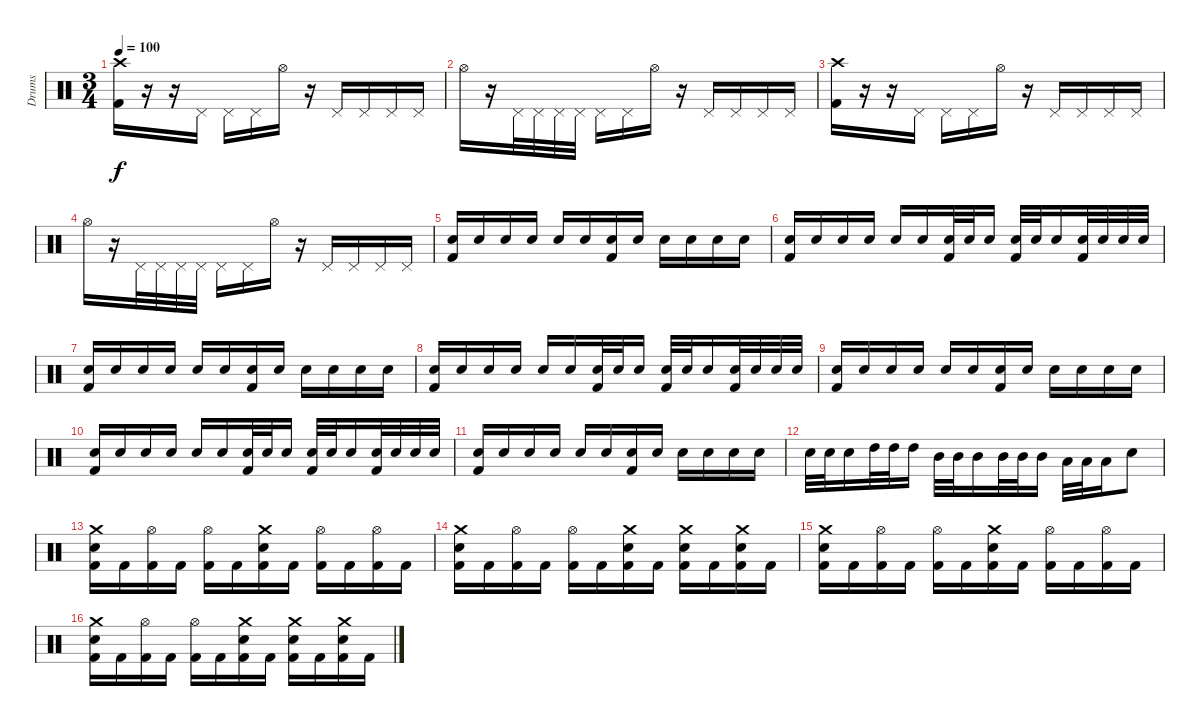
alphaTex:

\track ("Drums" "Drums") {instrument percussion}
\staff {score}
\articulation defaults
\ts (3 4)
\tempo 100
\clef neutral
\ks c
("Crash high (hit)" "Kick (hit) 2").16{dy f} r.16 r.16 "Pedal Hi-Hat (hit)".16 "Pedal Hi-Hat (hit)".16 "Pedal Hi-Hat (hit)".16 "Hi-Hat (open)".16 r.16 "Pedal Hi-Hat (hit)".16 "Pedal Hi-Hat (hit)".16 "Pedal Hi-Hat (hit)".16 "Pedal Hi-Hat (hit)".16 |
"Hi-Hat (open)".16 r.16 "Pedal Hi-Hat (hit)".32 "Pedal Hi-Hat (hit)".32 "Pedal Hi-Hat (hit)".32 "Pedal Hi-Hat (hit)".32 "Pedal Hi-Hat (hit)".16 "Pedal Hi-Hat (hit)".16 "Hi-Hat (open)".16 r.16 "Pedal Hi-Hat (hit)".16 "Pedal Hi-Hat (hit)".16 "Pedal Hi-Hat (hit)".16 "Pedal Hi-Hat (hit)".16 |
("Crash high (hit)" "Kick (hit) 2").16 r.16 r.16 "Pedal Hi-Hat (hit)".16 "Pedal Hi-Hat (hit)".16 "Pedal Hi-Hat (hit)".16 "Hi-Hat (open)".16 r.16 "Pedal Hi-Hat (hit)".16 "Pedal Hi-Hat (hit)".16 "Pedal Hi-Hat (hit)".16 "Pedal Hi-Hat (hit)".16 |
"Hi-Hat (open)".16 r.16 "Pedal Hi-Hat (hit)".32 "Pedal Hi-Hat (hit)".32 "Pedal Hi-Hat (hit)".32 "Pedal Hi-Hat (hit)".32 "Pedal Hi-Hat (hit)".16 "Pedal Hi-Hat (hit)".16 "Hi-Hat (open)".16 r.16 "Pedal Hi-Hat (hit)".16 "Pedal Hi-Hat (hit)".16 "Pedal Hi-Hat (hit)".16 "Pedal Hi-Hat (hit)".16 |
("Electric Snare (hit)" "Kick (hit) 2").16{volume 9} "Electric Snare (hit)".16 "Electric Snare (hit)".16 "Electric Snare (hit)".16 "Electric Snare (hit)".16 "Electric Snare (hit)".16 ("Electric Snare (hit)" "Kick (hit) 2").16 "Electric Snare (hit)".16 "Electric Snare (hit)".16 "Electric Snare (hit)".16 "Electric Snare (hit)".16 "Electric Snare (hit)".16 |
("Electric Snare (hit)" "Kick (hit) 2").16 "Electric Snare (hit)".16 "Electric Snare (hit)".16 "Electric Snare (hit)".16 "Electric Snare (hit)".16 "Electric Snare (hit)".16 ("Electric Snare (hit)" "Kick (hit) 2").32 "Electric Snare (hit)".32 "Electric Snare (hit)".16 ("Electric Snare (hit)" "Kick (hit) 2").32 "Electric Snare (hit)".32 "Electric Snare (hit)".16 ("Electric Snare (hit)" "Kick (hit) 2").32 "Electric Snare (hit)".32 "Electric Snare (hit)".32 "Electric Snare (hit)".32 |
("Electric Snare (hit)" "Kick (hit) 2").16 "Electric Snare (hit)".16 "Electric Snare (hit)".16 "Electric Snare (hit)".16 "Electric Snare (hit)".16 "Electric Snare (hit)".16 ("Electric Snare (hit)" "Kick (hit) 2").16 "Electric Snare (hit)".16 "Electric Snare (hit)".16 "Electric Snare (hit)".16 "Electric Snare (hit)".16 "Electric Snare (hit)".16 |
("Electric Snare (hit)" "Kick (hit) 2").16 "Electric Snare (hit)".16 "Electric Snare (hit)".16 "Electric Snare (hit)".16 "Electric Snare (hit)".16 "Electric Snare (hit)".16 ("Electric Snare (hit)" "Kick (hit) 2").32 "Electric Snare (hit)".32 "Electric Snare (hit)".16 ("Electric Snare (hit)" "Kick (hit) 2").32 "Electric Snare (hit)".32 "Electric Snare (hit)".16 ("Electric Snare (hit)" "Kick (hit) 2").32 "Electric Snare (hit)".32 "Electric Snare (hit)".32 "Electric Snare (hit)".32 |
("Electric Snare (hit)" "Kick (hit) 2").16 "Electric Snare (hit)".16 "Electric Snare (hit)".16 "Electric Snare (hit)".16 "Electric Snare (hit)".16 "Electric Snare (hit)".16 ("Electric Snare (hit)" "Kick (hit) 2").16 "Electric Snare (hit)".16 "Electric Snare (hit)".16 "Electric Snare (hit)".16 "Electric Snare (hit)".16 "Electric Snare (hit)".16 |
("Electric Snare (hit)" "Kick (hit) 2").16 "Electric Snare (hit)".16 "Electric Snare (hit)".16 "Electric Snare (hit)".16 "Electric Snare (hit)".16 "Electric Snare (hit)".16 ("Electric Snare (hit)" "Kick (hit) 2").32 "Electric Snare (hit)".32 "Electric Snare (hit)".16 ("Electric Snare (hit)" "Kick (hit) 2").32 "Electric Snare (hit)".32 "Electric Snare (hit)".16 ("Electric Snare (hit)" "Kick (hit) 2").32 "Electric Snare (hit)".32 "Electric Snare (hit)".32 "Electric Snare (hit)".32 |
("Electric Snare (hit)" "Kick (hit) 2").16{volume 10} "Electric Snare (hit)".16 "Electric Snare (hit)".16 "Electric Snare (hit)".16 "Electric Snare (hit)".16 "Electric Snare (hit)".16 ("Electric Snare (hit)" "Kick (hit) 2").16 "Electric Snare (hit)".16 "Electric Snare (hit)".16 "Electric Snare (hit)".16 "Electric Snare (hit)".16 "Electric Snare (hit)".16 |
"Electric Snare (hit)".32{volume 11} "Electric Snare (hit)".32 "Electric Snare (hit)".16 "High Tom (hit)".32 "High Tom (hit)".32 "High Tom (hit)".16 "Mid Tom (hit)".32 "Mid Tom (hit)".32 "Mid Tom (hit)".16{volume 12} "Mid Tom (hit)".32 "Mid Tom (hit)".32 "Mid Tom (hit)".16 "Low Tom (hit)".32 "Low Tom (hit)".32 "Low Tom (hit)".16 "Electric Snare (hit)".8 |
("Crash medium (hit)" "Electric Snare (hit)" "Kick (hit) 2").16{volume 13} "Kick (hit) 2".16 ("Hi-Hat (open)" "Kick (hit) 2").16 "Kick (hit) 2".16 ("Hi-Hat (open)" "Kick (hit) 2").16 "Kick (hit) 2".16 ("Crash medium (hit)" "Electric Snare (hit)" "Kick (hit) 2").16 "Kick (hit) 2".16 ("Hi-Hat (open)" "Kick (hit) 2").16 "Kick (hit) 2".16 ("Hi-Hat (open)" "Kick (hit) 2").16 "Kick (hit) 2".16 |
("Crash medium (hit)" "Electric Snare (hit)" "Kick (hit) 2").16 "Kick (hit) 2".16 ("Hi-Hat (open)" "Kick (hit) 2").16 "Kick (hit) 2".16 ("Hi-Hat (open)" "Kick (hit) 2").16 "Kick (hit) 2".16 ("Crash medium (hit)" "Electric Snare (hit)" "Kick (hit) 2").16 "Kick (hit) 2".16 ("Crash medium (hit)" "Electric Snare (hit)" "Kick (hit) 2").16 "Kick (hit) 2".16 ("Crash medium (hit)" "Electric Snare (hit)" "Kick (hit) 2").16 "Kick (hit) 2".16 |
("Crash medium (hit)" "Electric Snare (hit)" "Kick (hit) 2").16 "Kick (hit) 2".16 ("Hi-Hat (open)" "Kick (hit) 2").16 "Kick (hit) 2".16 ("Hi-Hat (open)" "Kick (hit) 2").16 "Kick (hit) 2".16 ("Crash medium (hit)" "Electric Snare (hit)" "Kick (hit) 2").16 "Kick (hit) 2".16 ("Hi-Hat (open)" "Kick (hit) 2").16 "Kick (hit) 2".16 ("Hi-Hat (open)" "Kick (hit) 2").16 "Kick (hit) 2".16 |
("Crash medium (hit)" "Electric Snare (hit)" "Kick (hit) 2").16 "Kick (hit) 2".16 ("Hi-Hat (open)" "Kick (hit) 2").16 "Kick (hit) 2".16 ("Hi-Hat (open)" "Kick (hit) 2").16 "Kick (hit) 2".16 ("Crash medium (hit)" "Electric Snare (hit)" "Kick (hit) 2").16 "Kick (hit) 2".16 ("Crash medium (hit)" "Electric Snare (hit)" "Kick (hit) 2").16 "Kick (hit) 2".16 ("Crash medium (hit)" "Electric Snare (hit)" "Kick (hit) 2").16 "Kick (hit) 2".16
